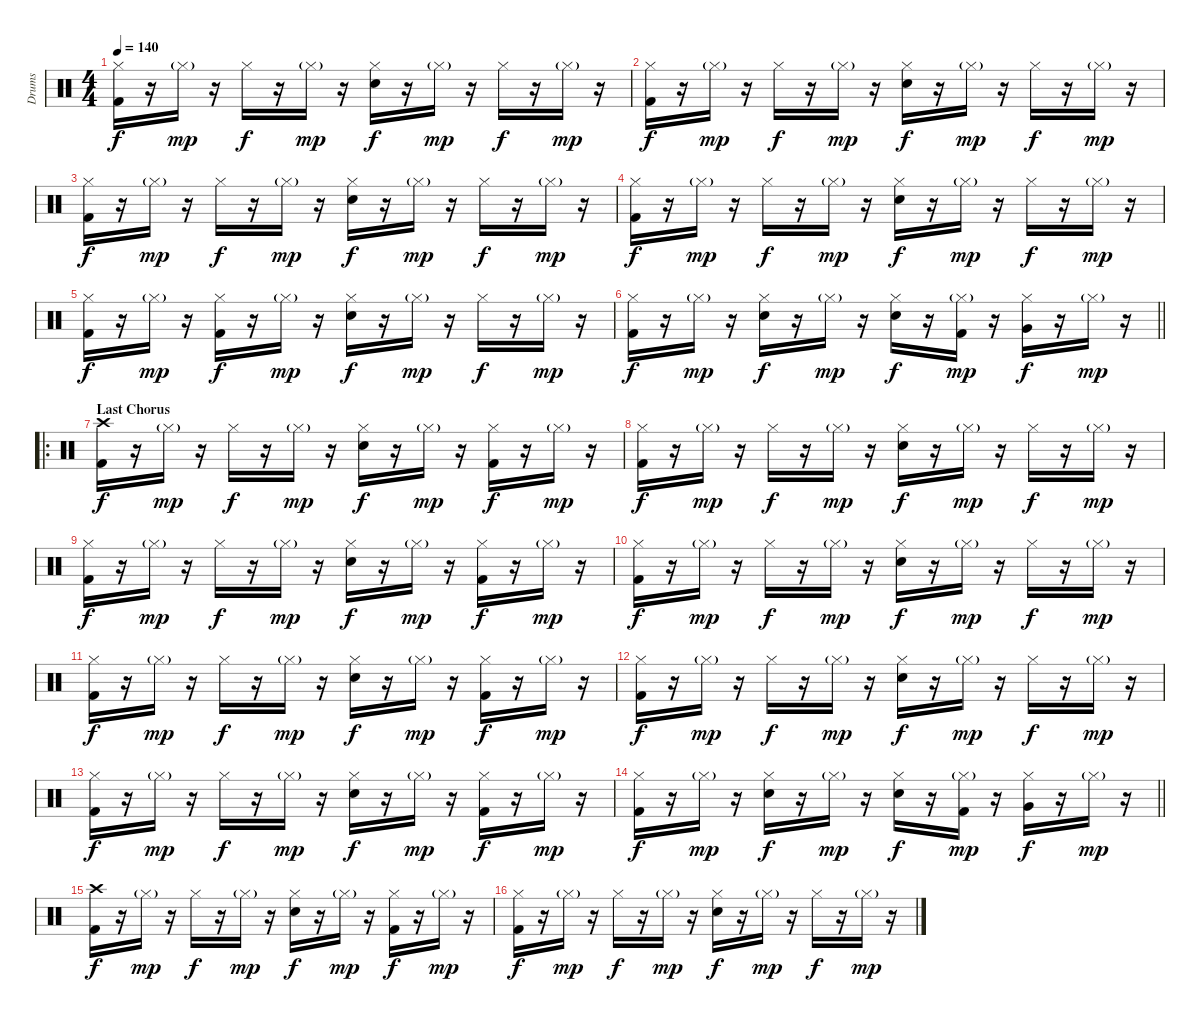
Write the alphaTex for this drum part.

\track ("Drums" "Drums") {instrument percussion}
\staff {score}
\articulation defaults
\ts (4 4)
\tempo 140
\clef neutral
\ks c
("Hi-Hat (closed)" "Kick (hit) 2").16{dy f} r.16 "Hi-Hat (closed)"{g}.16{dy mp} r.16 "Hi-Hat (closed)".16{dy f} r.16 "Hi-Hat (closed)"{g}.16{dy mp} r.16 ("Hi-Hat (closed)" "Snare (hit) 2").16{dy f} r.16 "Hi-Hat (closed)"{g}.16{dy mp} r.16 "Hi-Hat (closed)".16{dy f} r.16 "Hi-Hat (closed)"{g}.16{dy mp} r.16 |
("Hi-Hat (closed)" "Kick (hit) 2").16{dy f} r.16 "Hi-Hat (closed)"{g}.16{dy mp} r.16 "Hi-Hat (closed)".16{dy f} r.16 "Hi-Hat (closed)"{g}.16{dy mp} r.16 ("Hi-Hat (closed)" "Snare (hit) 2").16{dy f} r.16 "Hi-Hat (closed)"{g}.16{dy mp} r.16 "Hi-Hat (closed)".16{dy f} r.16 "Hi-Hat (closed)"{g}.16{dy mp} r.16 |
("Hi-Hat (closed)" "Kick (hit) 2").16{dy f} r.16 "Hi-Hat (closed)"{g}.16{dy mp} r.16 "Hi-Hat (closed)".16{dy f} r.16 "Hi-Hat (closed)"{g}.16{dy mp} r.16 ("Hi-Hat (closed)" "Snare (hit) 2").16{dy f} r.16 "Hi-Hat (closed)"{g}.16{dy mp} r.16 "Hi-Hat (closed)".16{dy f} r.16 "Hi-Hat (closed)"{g}.16{dy mp} r.16 |
("Hi-Hat (closed)" "Kick (hit) 2").16{dy f} r.16 "Hi-Hat (closed)"{g}.16{dy mp} r.16 "Hi-Hat (closed)".16{dy f} r.16 "Hi-Hat (closed)"{g}.16{dy mp} r.16 ("Hi-Hat (closed)" "Snare (hit) 2").16{dy f} r.16 "Hi-Hat (closed)"{g}.16{dy mp} r.16 "Hi-Hat (closed)".16{dy f} r.16 "Hi-Hat (closed)"{g}.16{dy mp} r.16 |
("Hi-Hat (closed)" "Kick (hit) 2").16{dy f} r.16 "Hi-Hat (closed)"{g}.16{dy mp} r.16 ("Hi-Hat (closed)" "Kick (hit) 2").16{dy f} r.16 "Hi-Hat (closed)"{g}.16{dy mp} r.16 ("Hi-Hat (closed)" "Snare (hit) 2").16{dy f} r.16 "Hi-Hat (closed)"{g}.16{dy mp} r.16 "Hi-Hat (closed)".16{dy f} r.16 "Hi-Hat (closed)"{g}.16{dy mp} r.16 |
\barLineRight lightlight
("Hi-Hat (closed)" "Kick (hit) 2").16{dy f} r.16 "Hi-Hat (closed)"{g}.16{dy mp} r.16 ("Hi-Hat (closed)" "Snare (hit) 2").16{dy f} r.16 "Hi-Hat (closed)"{g}.16{dy mp} r.16 ("Hi-Hat (closed)" "Snare (hit) 2").16{dy f} r.16 ("Hi-Hat (closed)"{g} "Kick (hit) 2").16{dy mp} r.16 ("Hi-Hat (closed)" "Very Low Tom (hit)").16{dy f} r.16 "Hi-Hat (closed)"{g}.16{dy mp} r.16 |
\ro
\section ("" "Last Chorus")
("Crash high (hit)" "Kick (hit) 2").16{dy f} r.16 "Hi-Hat (closed)"{g}.16{dy mp} r.16 "Hi-Hat (closed)".16{dy f} r.16 "Hi-Hat (closed)"{g}.16{dy mp} r.16 ("Hi-Hat (closed)" "Snare (hit) 2").16{dy f} r.16 "Hi-Hat (closed)"{g}.16{dy mp} r.16 ("Hi-Hat (closed)" "Kick (hit) 2").16{dy f} r.16 "Hi-Hat (closed)"{g}.16{dy mp} r.16 |
("Hi-Hat (closed)" "Kick (hit) 2").16{dy f} r.16 "Hi-Hat (closed)"{g}.16{dy mp} r.16 "Hi-Hat (closed)".16{dy f} r.16 "Hi-Hat (closed)"{g}.16{dy mp} r.16 ("Hi-Hat (closed)" "Snare (hit) 2").16{dy f} r.16 "Hi-Hat (closed)"{g}.16{dy mp} r.16 "Hi-Hat (closed)".16{dy f} r.16 "Hi-Hat (closed)"{g}.16{dy mp} r.16 |
("Hi-Hat (closed)" "Kick (hit) 2").16{dy f} r.16 "Hi-Hat (closed)"{g}.16{dy mp} r.16 "Hi-Hat (closed)".16{dy f} r.16 "Hi-Hat (closed)"{g}.16{dy mp} r.16 ("Hi-Hat (closed)" "Snare (hit) 2").16{dy f} r.16 "Hi-Hat (closed)"{g}.16{dy mp} r.16 ("Hi-Hat (closed)" "Kick (hit) 2").16{dy f} r.16 "Hi-Hat (closed)"{g}.16{dy mp} r.16 |
("Hi-Hat (closed)" "Kick (hit) 2").16{dy f} r.16 "Hi-Hat (closed)"{g}.16{dy mp} r.16 "Hi-Hat (closed)".16{dy f} r.16 "Hi-Hat (closed)"{g}.16{dy mp} r.16 ("Hi-Hat (closed)" "Snare (hit) 2").16{dy f} r.16 "Hi-Hat (closed)"{g}.16{dy mp} r.16 "Hi-Hat (closed)".16{dy f} r.16 "Hi-Hat (closed)"{g}.16{dy mp} r.16 |
("Hi-Hat (closed)" "Kick (hit) 2").16{dy f} r.16 "Hi-Hat (closed)"{g}.16{dy mp} r.16 "Hi-Hat (closed)".16{dy f} r.16 "Hi-Hat (closed)"{g}.16{dy mp} r.16 ("Hi-Hat (closed)" "Snare (hit) 2").16{dy f} r.16 "Hi-Hat (closed)"{g}.16{dy mp} r.16 ("Hi-Hat (closed)" "Kick (hit) 2").16{dy f} r.16 "Hi-Hat (closed)"{g}.16{dy mp} r.16 |
("Hi-Hat (closed)" "Kick (hit) 2").16{dy f} r.16 "Hi-Hat (closed)"{g}.16{dy mp} r.16 "Hi-Hat (closed)".16{dy f} r.16 "Hi-Hat (closed)"{g}.16{dy mp} r.16 ("Hi-Hat (closed)" "Snare (hit) 2").16{dy f} r.16 "Hi-Hat (closed)"{g}.16{dy mp} r.16 "Hi-Hat (closed)".16{dy f} r.16 "Hi-Hat (closed)"{g}.16{dy mp} r.16 |
("Hi-Hat (closed)" "Kick (hit) 2").16{dy f} r.16 "Hi-Hat (closed)"{g}.16{dy mp} r.16 "Hi-Hat (closed)".16{dy f} r.16 "Hi-Hat (closed)"{g}.16{dy mp} r.16 ("Hi-Hat (closed)" "Snare (hit) 2").16{dy f} r.16 "Hi-Hat (closed)"{g}.16{dy mp} r.16 ("Hi-Hat (closed)" "Kick (hit) 2").16{dy f} r.16 "Hi-Hat (closed)"{g}.16{dy mp} r.16 |
\barLineRight lightlight
("Hi-Hat (closed)" "Kick (hit) 2").16{dy f} r.16 "Hi-Hat (closed)"{g}.16{dy mp} r.16 ("Hi-Hat (closed)" "Snare (hit) 2").16{dy f} r.16 "Hi-Hat (closed)"{g}.16{dy mp} r.16 ("Hi-Hat (closed)" "Snare (hit) 2").16{dy f} r.16 ("Hi-Hat (closed)"{g} "Kick (hit) 2").16{dy mp} r.16 ("Hi-Hat (closed)" "Very Low Tom (hit)").16{dy f} r.16 "Hi-Hat (closed)"{g}.16{dy mp} r.16 |
("Crash high (hit)" "Kick (hit) 2").16{dy f} r.16 "Hi-Hat (closed)"{g}.16{dy mp} r.16 "Hi-Hat (closed)".16{dy f} r.16 "Hi-Hat (closed)"{g}.16{dy mp} r.16 ("Hi-Hat (closed)" "Snare (hit) 2").16{dy f} r.16 "Hi-Hat (closed)"{g}.16{dy mp} r.16 ("Hi-Hat (closed)" "Kick (hit) 2").16{dy f} r.16 "Hi-Hat (closed)"{g}.16{dy mp} r.16 |
("Hi-Hat (closed)" "Kick (hit) 2").16{dy f} r.16 "Hi-Hat (closed)"{g}.16{dy mp} r.16 "Hi-Hat (closed)".16{dy f} r.16 "Hi-Hat (closed)"{g}.16{dy mp} r.16 ("Hi-Hat (closed)" "Snare (hit) 2").16{dy f} r.16 "Hi-Hat (closed)"{g}.16{dy mp} r.16 "Hi-Hat (closed)".16{dy f} r.16 "Hi-Hat (closed)"{g}.16{dy mp} r.16
